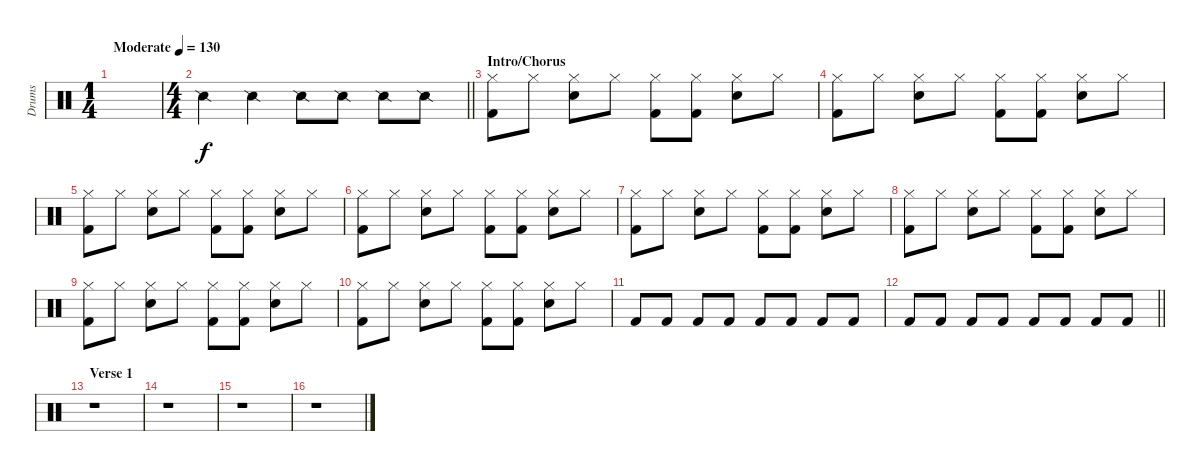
\track ("Drums" "Drums") {instrument percussion}
\staff {score}
\articulation defaults
\ts (1 4)
\tempo (130 "Moderate")
\clef neutral
\ks c
|
\ts (4 4)
\barLineRight lightlight "Snare (side stick) 2".4 "Snare (side stick) 2".4 "Snare (side stick) 2".8 "Snare (side stick) 2".8 "Snare (side stick) 2".8 "Snare (side stick) 2".8
|
\section ("" "Intro/Chorus")
("Hi-Hat (closed)" "Kick (hit) 2").8 "Hi-Hat (closed)".8 ("Hi-Hat (closed)" "Snare (hit) 2").8 "Hi-Hat (closed)".8 ("Hi-Hat (closed)" "Kick (hit) 2").8 ("Hi-Hat (closed)" "Kick (hit) 2").8 ("Hi-Hat (closed)" "Snare (hit) 2").8 "Hi-Hat (closed)".8 |
("Hi-Hat (closed)" "Kick (hit) 2").8 "Hi-Hat (closed)".8 ("Hi-Hat (closed)" "Snare (hit) 2").8 "Hi-Hat (closed)".8 ("Hi-Hat (closed)" "Kick (hit) 2").8 ("Hi-Hat (closed)" "Kick (hit) 2").8 ("Hi-Hat (closed)" "Snare (hit) 2").8 "Hi-Hat (closed)".8 |
("Hi-Hat (closed)" "Kick (hit) 2").8 "Hi-Hat (closed)".8 ("Hi-Hat (closed)" "Snare (hit) 2").8 "Hi-Hat (closed)".8 ("Hi-Hat (closed)" "Kick (hit) 2").8 ("Hi-Hat (closed)" "Kick (hit) 2").8 ("Hi-Hat (closed)" "Snare (hit) 2").8 "Hi-Hat (closed)".8 |
("Hi-Hat (closed)" "Kick (hit) 2").8 "Hi-Hat (closed)".8 ("Hi-Hat (closed)" "Snare (hit) 2").8 "Hi-Hat (closed)".8 ("Hi-Hat (closed)" "Kick (hit) 2").8 ("Hi-Hat (closed)" "Kick (hit) 2").8 ("Hi-Hat (closed)" "Snare (hit) 2").8 "Hi-Hat (closed)".8 |
("Hi-Hat (closed)" "Kick (hit) 2").8 "Hi-Hat (closed)".8 ("Hi-Hat (closed)" "Snare (hit) 2").8 "Hi-Hat (closed)".8 ("Hi-Hat (closed)" "Kick (hit) 2").8 ("Hi-Hat (closed)" "Kick (hit) 2").8 ("Hi-Hat (closed)" "Snare (hit) 2").8 "Hi-Hat (closed)".8 |
("Hi-Hat (closed)" "Kick (hit) 2").8 "Hi-Hat (closed)".8 ("Hi-Hat (closed)" "Snare (hit) 2").8 "Hi-Hat (closed)".8 ("Hi-Hat (closed)" "Kick (hit) 2").8 ("Hi-Hat (closed)" "Kick (hit) 2").8 ("Hi-Hat (closed)" "Snare (hit) 2").8 "Hi-Hat (closed)".8 |
("Hi-Hat (closed)" "Kick (hit) 2").8 "Hi-Hat (closed)".8 ("Hi-Hat (closed)" "Snare (hit) 2").8 "Hi-Hat (closed)".8 ("Hi-Hat (closed)" "Kick (hit) 2").8 ("Hi-Hat (closed)" "Kick (hit) 2").8 ("Hi-Hat (closed)" "Snare (hit) 2").8 "Hi-Hat (closed)".8 |
("Hi-Hat (closed)" "Kick (hit) 2").8 "Hi-Hat (closed)".8 ("Hi-Hat (closed)" "Snare (hit) 2").8 "Hi-Hat (closed)".8 ("Hi-Hat (closed)" "Kick (hit) 2").8 ("Hi-Hat (closed)" "Kick (hit) 2").8 ("Hi-Hat (closed)" "Snare (hit) 2").8 "Hi-Hat (closed)".8 |
"Kick (hit) 2".8 "Kick (hit) 2".8 "Kick (hit) 2".8 "Kick (hit) 2".8 "Kick (hit) 2".8 "Kick (hit) 2".8 "Kick (hit) 2".8 "Kick (hit) 2".8 |
\barLineRight lightlight "Kick (hit) 2".8 "Kick (hit) 2".8 "Kick (hit) 2".8 "Kick (hit) 2".8 "Kick (hit) 2".8 "Kick (hit) 2".8 "Kick (hit) 2".8 "Kick (hit) 2".8
|
\section ("" "Verse 1")
r.1 |
r.1 |
r.1 |
r.1
